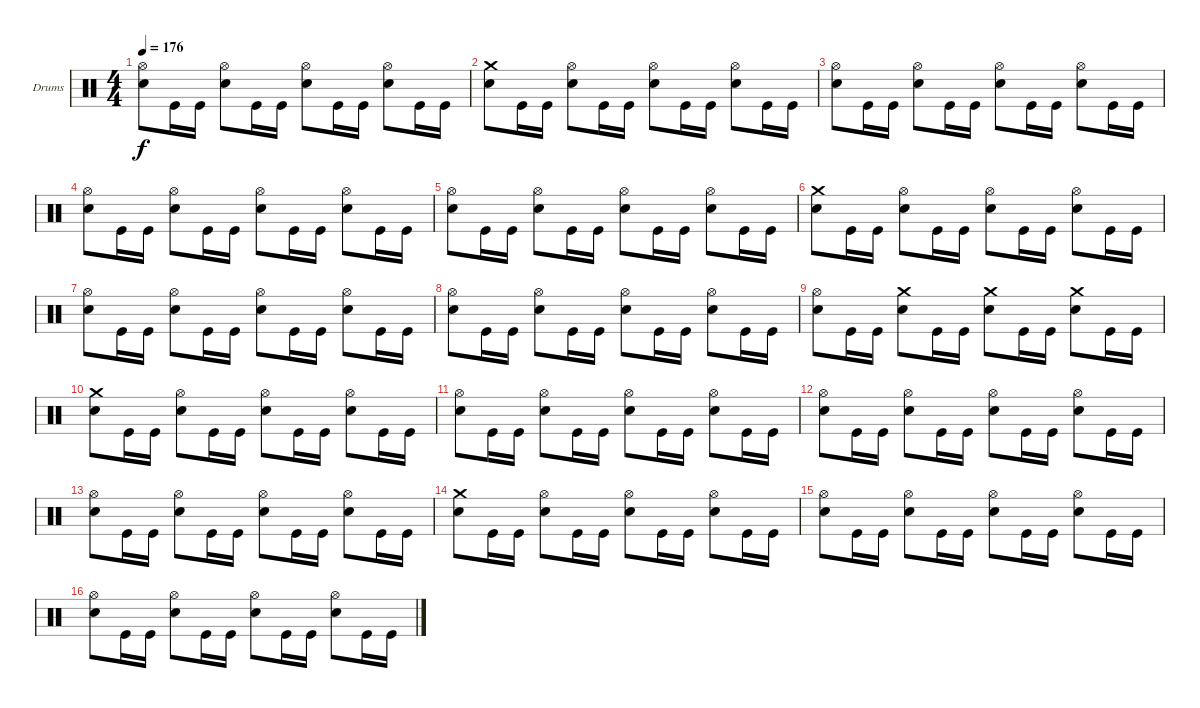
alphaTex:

\bracketExtendMode groupsimilarinstruments
\firstSystemTrackNameOrientation horizontal
\otherSystemsTrackNameOrientation horizontal
\track ("Drums" "Drums") {instrument percussion}
\staff {score}
\articulation defaults
\ts (4 4)
\tempo 176
\clef neutral
\ks c
("Hi-Hat (open)" "Snare (hit) 2").8{dy f} "Kick (hit)".16 "Kick (hit)".16 ("Hi-Hat (open)" "Snare (hit) 2").8 "Kick (hit)".16 "Kick (hit)".16 ("Hi-Hat (open)" "Snare (hit) 2").8 "Kick (hit)".16 "Kick (hit)".16 ("Hi-Hat (open)" "Snare (hit) 2").8 "Kick (hit)".16 "Kick (hit)".16 |
("Snare (hit) 2" "Crash medium (hit)").8 "Kick (hit)".16 "Kick (hit)".16 ("Hi-Hat (open)" "Snare (hit) 2").8 "Kick (hit)".16 "Kick (hit)".16 ("Hi-Hat (open)" "Snare (hit) 2").8 "Kick (hit)".16 "Kick (hit)".16 ("Hi-Hat (open)" "Snare (hit) 2").8 "Kick (hit)".16 "Kick (hit)".16 |
("Hi-Hat (open)" "Snare (hit) 2").8 "Kick (hit)".16 "Kick (hit)".16 ("Hi-Hat (open)" "Snare (hit) 2").8 "Kick (hit)".16 "Kick (hit)".16 ("Hi-Hat (open)" "Snare (hit) 2").8 "Kick (hit)".16 "Kick (hit)".16 ("Hi-Hat (open)" "Snare (hit) 2").8 "Kick (hit)".16 "Kick (hit)".16 |
("Hi-Hat (open)" "Snare (hit) 2").8 "Kick (hit)".16 "Kick (hit)".16 ("Hi-Hat (open)" "Snare (hit) 2").8 "Kick (hit)".16 "Kick (hit)".16 ("Hi-Hat (open)" "Snare (hit) 2").8 "Kick (hit)".16 "Kick (hit)".16 ("Hi-Hat (open)" "Snare (hit) 2").8 "Kick (hit)".16 "Kick (hit)".16 |
("Hi-Hat (open)" "Snare (hit) 2").8 "Kick (hit)".16 "Kick (hit)".16 ("Hi-Hat (open)" "Snare (hit) 2").8 "Kick (hit)".16 "Kick (hit)".16 ("Hi-Hat (open)" "Snare (hit) 2").8 "Kick (hit)".16 "Kick (hit)".16 ("Hi-Hat (open)" "Snare (hit) 2").8 "Kick (hit)".16 "Kick (hit)".16 |
("Snare (hit) 2" "Crash medium (hit)").8 "Kick (hit)".16 "Kick (hit)".16 ("Hi-Hat (open)" "Snare (hit) 2").8 "Kick (hit)".16 "Kick (hit)".16 ("Hi-Hat (open)" "Snare (hit) 2").8 "Kick (hit)".16 "Kick (hit)".16 ("Hi-Hat (open)" "Snare (hit) 2").8 "Kick (hit)".16 "Kick (hit)".16 |
("Hi-Hat (open)" "Snare (hit) 2").8 "Kick (hit)".16 "Kick (hit)".16 ("Hi-Hat (open)" "Snare (hit) 2").8 "Kick (hit)".16 "Kick (hit)".16 ("Hi-Hat (open)" "Snare (hit) 2").8 "Kick (hit)".16 "Kick (hit)".16 ("Hi-Hat (open)" "Snare (hit) 2").8 "Kick (hit)".16 "Kick (hit)".16 |
("Hi-Hat (open)" "Snare (hit) 2").8 "Kick (hit)".16 "Kick (hit)".16 ("Hi-Hat (open)" "Snare (hit) 2").8 "Kick (hit)".16 "Kick (hit)".16 ("Hi-Hat (open)" "Snare (hit) 2").8 "Kick (hit)".16 "Kick (hit)".16 ("Hi-Hat (open)" "Snare (hit) 2").8 "Kick (hit)".16 "Kick (hit)".16 |
("Snare (hit) 2" "Hi-Hat (open)").8 "Kick (hit)".16 "Kick (hit)".16 ("Crash medium (hit)" "Snare (hit) 2").8 "Kick (hit)".16 "Kick (hit)".16 ("Crash medium (hit)" "Snare (hit) 2").8 "Kick (hit)".16 "Kick (hit)".16 ("Crash medium (hit)" "Snare (hit) 2").8 "Kick (hit)".16 "Kick (hit)".16 |
("Crash medium (hit)" "Snare (hit) 2").8 "Kick (hit)".16 "Kick (hit)".16 ("Hi-Hat (open)" "Snare (hit) 2").8 "Kick (hit)".16 "Kick (hit)".16 ("Hi-Hat (open)" "Snare (hit) 2").8 "Kick (hit)".16 "Kick (hit)".16 ("Hi-Hat (open)" "Snare (hit) 2").8 "Kick (hit)".16 "Kick (hit)".16 |
("Hi-Hat (open)" "Snare (hit) 2").8 "Kick (hit)".16 "Kick (hit)".16 ("Hi-Hat (open)" "Snare (hit) 2").8 "Kick (hit)".16 "Kick (hit)".16 ("Hi-Hat (open)" "Snare (hit) 2").8 "Kick (hit)".16 "Kick (hit)".16 ("Hi-Hat (open)" "Snare (hit) 2").8 "Kick (hit)".16 "Kick (hit)".16 |
("Hi-Hat (open)" "Snare (hit) 2").8 "Kick (hit)".16 "Kick (hit)".16 ("Hi-Hat (open)" "Snare (hit) 2").8 "Kick (hit)".16 "Kick (hit)".16 ("Hi-Hat (open)" "Snare (hit) 2").8 "Kick (hit)".16 "Kick (hit)".16 ("Hi-Hat (open)" "Snare (hit) 2").8 "Kick (hit)".16 "Kick (hit)".16 |
("Hi-Hat (open)" "Snare (hit) 2").8 "Kick (hit)".16 "Kick (hit)".16 ("Hi-Hat (open)" "Snare (hit) 2").8 "Kick (hit)".16 "Kick (hit)".16 ("Hi-Hat (open)" "Snare (hit) 2").8 "Kick (hit)".16 "Kick (hit)".16 ("Hi-Hat (open)" "Snare (hit) 2").8 "Kick (hit)".16 "Kick (hit)".16 |
("Crash medium (hit)" "Snare (hit) 2").8 "Kick (hit)".16 "Kick (hit)".16 ("Hi-Hat (open)" "Snare (hit) 2").8 "Kick (hit)".16 "Kick (hit)".16 ("Hi-Hat (open)" "Snare (hit) 2").8 "Kick (hit)".16 "Kick (hit)".16 ("Hi-Hat (open)" "Snare (hit) 2").8 "Kick (hit)".16 "Kick (hit)".16 |
("Hi-Hat (open)" "Snare (hit) 2").8 "Kick (hit)".16 "Kick (hit)".16 ("Hi-Hat (open)" "Snare (hit) 2").8 "Kick (hit)".16 "Kick (hit)".16 ("Hi-Hat (open)" "Snare (hit) 2").8 "Kick (hit)".16 "Kick (hit)".16 ("Hi-Hat (open)" "Snare (hit) 2").8 "Kick (hit)".16 "Kick (hit)".16 |
("Hi-Hat (open)" "Snare (hit) 2").8 "Kick (hit)".16 "Kick (hit)".16 ("Hi-Hat (open)" "Snare (hit) 2").8 "Kick (hit)".16 "Kick (hit)".16 ("Hi-Hat (open)" "Snare (hit) 2").8 "Kick (hit)".16 "Kick (hit)".16 ("Hi-Hat (open)" "Snare (hit) 2").8 "Kick (hit)".16 "Kick (hit)".16
